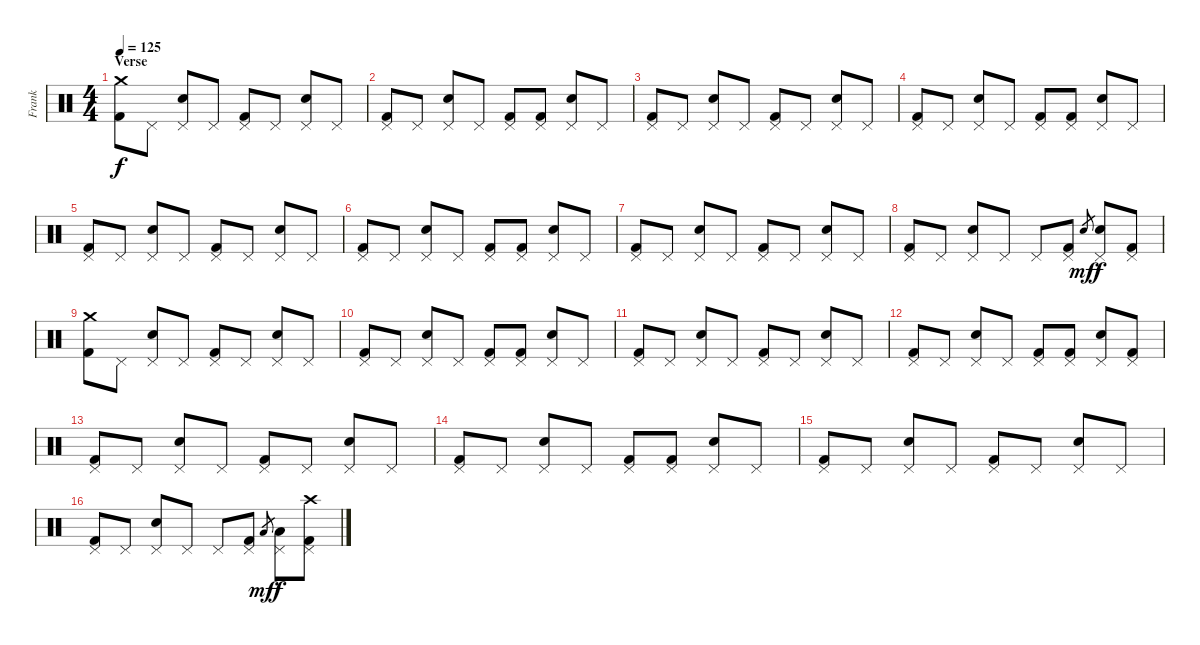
\track ("Frank" "Frank") {instrument percussion}
\staff {score}
\articulation defaults
\ts (4 4)
\section ("" "Verse")
\tempo 125
\clef neutral
\ks c
("Crash medium (hit)" "Kick (hit) 2").8{dy f} "Pedal Hi-Hat (hit)".8 ("Pedal Hi-Hat (hit)" "Electric Snare (hit)").8 "Pedal Hi-Hat (hit)".8 ("Pedal Hi-Hat (hit)" "Kick (hit) 2").8 "Pedal Hi-Hat (hit)".8 ("Pedal Hi-Hat (hit)" "Electric Snare (hit)").8 "Pedal Hi-Hat (hit)".8 |
("Pedal Hi-Hat (hit)" "Kick (hit) 2").8 "Pedal Hi-Hat (hit)".8 ("Pedal Hi-Hat (hit)" "Electric Snare (hit)").8 "Pedal Hi-Hat (hit)".8 ("Pedal Hi-Hat (hit)" "Kick (hit) 2").8 ("Pedal Hi-Hat (hit)" "Kick (hit) 2").8 ("Pedal Hi-Hat (hit)" "Electric Snare (hit)").8 "Pedal Hi-Hat (hit)".8 |
("Pedal Hi-Hat (hit)" "Kick (hit) 2").8 "Pedal Hi-Hat (hit)".8 ("Pedal Hi-Hat (hit)" "Electric Snare (hit)").8 "Pedal Hi-Hat (hit)".8 ("Pedal Hi-Hat (hit)" "Kick (hit) 2").8 "Pedal Hi-Hat (hit)".8 ("Pedal Hi-Hat (hit)" "Electric Snare (hit)").8 "Pedal Hi-Hat (hit)".8 |
("Pedal Hi-Hat (hit)" "Kick (hit) 2").8 "Pedal Hi-Hat (hit)".8 ("Pedal Hi-Hat (hit)" "Electric Snare (hit)").8 "Pedal Hi-Hat (hit)".8 ("Pedal Hi-Hat (hit)" "Kick (hit) 2").8 ("Pedal Hi-Hat (hit)" "Kick (hit) 2").8 ("Pedal Hi-Hat (hit)" "Electric Snare (hit)").8 "Pedal Hi-Hat (hit)".8 |
("Pedal Hi-Hat (hit)" "Kick (hit) 2").8 "Pedal Hi-Hat (hit)".8 ("Pedal Hi-Hat (hit)" "Electric Snare (hit)").8 "Pedal Hi-Hat (hit)".8 ("Pedal Hi-Hat (hit)" "Kick (hit) 2").8 "Pedal Hi-Hat (hit)".8 ("Pedal Hi-Hat (hit)" "Electric Snare (hit)").8 "Pedal Hi-Hat (hit)".8 |
("Pedal Hi-Hat (hit)" "Kick (hit) 2").8 "Pedal Hi-Hat (hit)".8 ("Pedal Hi-Hat (hit)" "Electric Snare (hit)").8 "Pedal Hi-Hat (hit)".8 ("Pedal Hi-Hat (hit)" "Kick (hit) 2").8 ("Pedal Hi-Hat (hit)" "Kick (hit) 2").8 ("Pedal Hi-Hat (hit)" "Electric Snare (hit)").8 "Pedal Hi-Hat (hit)".8 |
("Pedal Hi-Hat (hit)" "Kick (hit) 2").8 "Pedal Hi-Hat (hit)".8 ("Pedal Hi-Hat (hit)" "Electric Snare (hit)").8 "Pedal Hi-Hat (hit)".8 ("Pedal Hi-Hat (hit)" "Kick (hit) 2").8 "Pedal Hi-Hat (hit)".8 ("Pedal Hi-Hat (hit)" "Electric Snare (hit)").8 "Pedal Hi-Hat (hit)".8 |
("Pedal Hi-Hat (hit)" "Kick (hit) 2").8 "Pedal Hi-Hat (hit)".8 ("Pedal Hi-Hat (hit)" "Electric Snare (hit)").8 "Pedal Hi-Hat (hit)".8 "Pedal Hi-Hat (hit)".8 ("Pedal Hi-Hat (hit)" "Kick (hit) 2").8 "Electric Snare (hit)".8{gr dy mf} ("Pedal Hi-Hat (hit)" "Electric Snare (hit)").8{dy f} ("Pedal Hi-Hat (hit)" "Kick (hit) 2").8 |
("Crash medium (hit)" "Kick (hit) 2").8 "Pedal Hi-Hat (hit)".8 ("Pedal Hi-Hat (hit)" "Electric Snare (hit)").8 "Pedal Hi-Hat (hit)".8 ("Pedal Hi-Hat (hit)" "Kick (hit) 2").8 "Pedal Hi-Hat (hit)".8 ("Pedal Hi-Hat (hit)" "Electric Snare (hit)").8 "Pedal Hi-Hat (hit)".8 |
("Pedal Hi-Hat (hit)" "Kick (hit) 2").8 "Pedal Hi-Hat (hit)".8 ("Pedal Hi-Hat (hit)" "Electric Snare (hit)").8 "Pedal Hi-Hat (hit)".8 ("Pedal Hi-Hat (hit)" "Kick (hit) 2").8 ("Pedal Hi-Hat (hit)" "Kick (hit) 2").8 ("Pedal Hi-Hat (hit)" "Electric Snare (hit)").8 "Pedal Hi-Hat (hit)".8 |
("Pedal Hi-Hat (hit)" "Kick (hit) 2").8 "Pedal Hi-Hat (hit)".8 ("Pedal Hi-Hat (hit)" "Electric Snare (hit)").8 "Pedal Hi-Hat (hit)".8 ("Pedal Hi-Hat (hit)" "Kick (hit) 2").8 "Pedal Hi-Hat (hit)".8 ("Pedal Hi-Hat (hit)" "Electric Snare (hit)").8 "Pedal Hi-Hat (hit)".8 |
("Pedal Hi-Hat (hit)" "Kick (hit) 2").8 "Pedal Hi-Hat (hit)".8 ("Pedal Hi-Hat (hit)" "Electric Snare (hit)").8 "Pedal Hi-Hat (hit)".8 ("Pedal Hi-Hat (hit)" "Kick (hit) 2").8 ("Pedal Hi-Hat (hit)" "Kick (hit) 2").8 ("Pedal Hi-Hat (hit)" "Electric Snare (hit)").8 ("Pedal Hi-Hat (hit)" "Kick (hit) 2").8 |
("Pedal Hi-Hat (hit)" "Kick (hit) 2").8 "Pedal Hi-Hat (hit)".8 ("Pedal Hi-Hat (hit)" "Electric Snare (hit)").8 "Pedal Hi-Hat (hit)".8 ("Pedal Hi-Hat (hit)" "Kick (hit) 2").8 "Pedal Hi-Hat (hit)".8 ("Pedal Hi-Hat (hit)" "Electric Snare (hit)").8 "Pedal Hi-Hat (hit)".8 |
("Pedal Hi-Hat (hit)" "Kick (hit) 2").8 "Pedal Hi-Hat (hit)".8 ("Pedal Hi-Hat (hit)" "Electric Snare (hit)").8 "Pedal Hi-Hat (hit)".8 ("Pedal Hi-Hat (hit)" "Kick (hit) 2").8 ("Pedal Hi-Hat (hit)" "Kick (hit) 2").8 ("Pedal Hi-Hat (hit)" "Electric Snare (hit)").8 "Pedal Hi-Hat (hit)".8 |
("Pedal Hi-Hat (hit)" "Kick (hit) 2").8 "Pedal Hi-Hat (hit)".8 ("Pedal Hi-Hat (hit)" "Electric Snare (hit)").8 "Pedal Hi-Hat (hit)".8 ("Pedal Hi-Hat (hit)" "Kick (hit) 2").8 "Pedal Hi-Hat (hit)".8 ("Pedal Hi-Hat (hit)" "Electric Snare (hit)").8 "Pedal Hi-Hat (hit)".8 |
("Pedal Hi-Hat (hit)" "Kick (hit) 2").8 "Pedal Hi-Hat (hit)".8 ("Pedal Hi-Hat (hit)" "Electric Snare (hit)").8 "Pedal Hi-Hat (hit)".8 "Pedal Hi-Hat (hit)".8 ("Pedal Hi-Hat (hit)" "Kick (hit) 2").8 "Low Floor Tom (hit)".8{gr dy mf} ("Pedal Hi-Hat (hit)" "Low Floor Tom (hit)").8{dy f} ("Crash high (hit)" "Pedal Hi-Hat (hit)" "Kick (hit) 2").8
